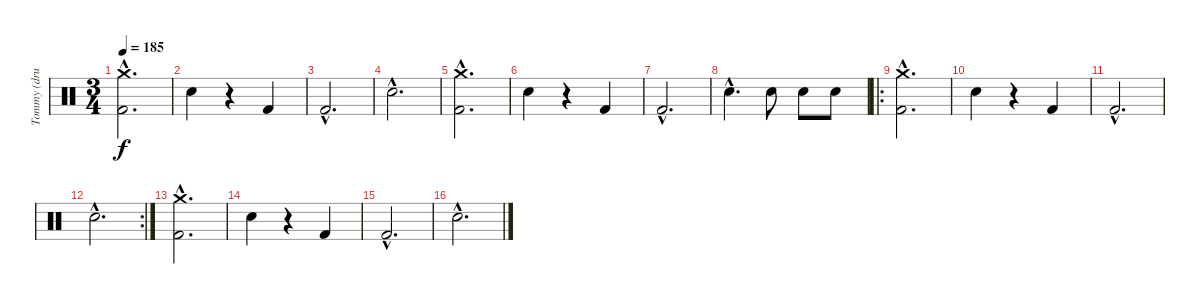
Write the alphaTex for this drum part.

\track ("Tommy (drums)" "Tommy (dru") {instrument percussion}
\staff {score}
\articulation defaults
\ts (3 4)
\tempo 185
\clef neutral
\ks c
("Crash medium (hit)"{hac} "Kick (hit) 2"{hac}).2{d dy f} |
"Electric Snare (hit)".4 r.4 "Kick (hit) 2".4 |
"Kick (hit) 2"{hac}.2{d} |
"Electric Snare (hit)"{hac}.2{d} |
("Crash medium (hit)"{hac} "Kick (hit) 2"{hac}).2{d} |
"Electric Snare (hit)".4 r.4 "Kick (hit) 2".4 |
"Kick (hit) 2"{hac}.2{d} |
"Electric Snare (hit)"{hac}.4{d} "Electric Snare (hit)".8 "Electric Snare (hit)".8 "Electric Snare (hit)".8 |
\ro
("Crash medium (hit)"{hac} "Kick (hit) 2"{hac}).2{d} |
"Electric Snare (hit)".4 r.4 "Kick (hit) 2".4 |
"Kick (hit) 2"{hac}.2{d} |
\rc 2 "Electric Snare (hit)"{hac}.2{d}
|
("Crash medium (hit)"{hac} "Kick (hit) 2"{hac}).2{d} |
"Electric Snare (hit)".4 r.4 "Kick (hit) 2".4 |
"Kick (hit) 2"{hac}.2{d} |
"Electric Snare (hit)"{hac}.2{d}
